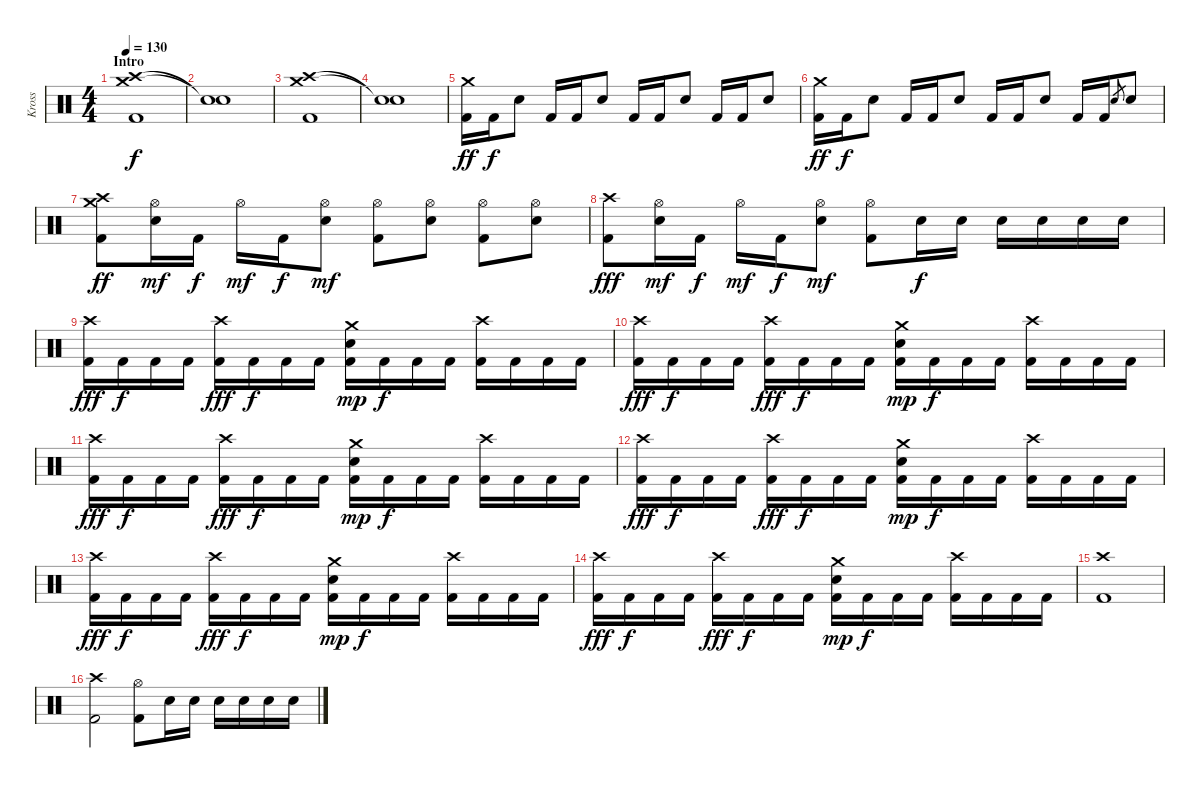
\track ("Kross" "Kross") {instrument percussion}
\staff {score}
\articulation defaults
\ts (4 4)
\section ("" "Intro")
\tempo 130
\clef neutral
\ks c
("Crash medium (hit)" "Crash high (hit)" "Kick (hit) 2").1{dy f} |
("Snare (hit)"{t} "Snare (hit)"{t}).1 |
("Crash medium (hit)" "Crash high (hit)" "Kick (hit) 2").1 |
("Snare (hit)"{t} "Snare (hit)"{t}).1 |
("Crash medium (hit)" "Kick (hit) 2").16{dy ff} "Kick (hit) 2".16{dy f} "Snare (hit) 2".8 "Kick (hit) 2".16 "Kick (hit) 2".16 "Snare (hit) 2".8 "Kick (hit) 2".16 "Kick (hit) 2".16 "Snare (hit) 2".8 "Kick (hit) 2".16 "Kick (hit) 2".16 "Snare (hit) 2".8 |
("Crash medium (hit)" "Kick (hit) 2").16{dy ff} "Kick (hit) 2".16{dy f} "Snare (hit) 2".8 "Kick (hit) 2".16 "Kick (hit) 2".16 "Snare (hit) 2".8 "Kick (hit) 2".16 "Kick (hit) 2".16 "Snare (hit) 2".8 "Kick (hit) 2".16 "Kick (hit) 2".16 "Snare (hit) 2".8{gr} "Snare (hit) 2".8 |
("Crash medium (hit)" "Crash high (hit)" "Kick (hit) 2").8{dy ff} ("Hi-Hat (open)" "Snare (hit) 2").16{dy mf} "Kick (hit) 2".16{dy f} "Hi-Hat (open)".16{dy mf} "Kick (hit) 2".16{dy f} ("Hi-Hat (open)" "Snare (hit) 2").8{dy mf} ("Hi-Hat (open)" "Kick (hit) 2").8 ("Hi-Hat (open)" "Snare (hit) 2").8 ("Hi-Hat (open)" "Kick (hit) 2").8 ("Hi-Hat (open)" "Snare (hit) 2").8 |
("Crash high (hit)" "Kick (hit) 2").8{dy fff} ("Hi-Hat (open)" "Snare (hit) 2").16{dy mf} "Kick (hit) 2".16{dy f} "Hi-Hat (open)".16{dy mf} "Kick (hit) 2".16{dy f} ("Hi-Hat (open)" "Snare (hit) 2").8{dy mf} ("Hi-Hat (open)" "Kick (hit) 2").8 "Snare (hit) 2".16{dy f} "Snare (hit) 2".16 "Snare (hit) 2".16 "Snare (hit) 2".16 "Snare (hit) 2".16 "Snare (hit) 2".16 |
("Crash high (hit)" "Kick (hit) 2").16{dy fff} "Kick (hit) 2".16{dy f} "Kick (hit) 2".16 "Kick (hit) 2".16 ("Crash high (hit)" "Kick (hit) 2").16{dy fff} "Kick (hit) 2".16{dy f} "Kick (hit) 2".16 "Kick (hit) 2".16 ("Crash medium (hit)" "Snare (hit) 2" "Kick (hit) 2").16{dy mp} "Kick (hit) 2".16{dy f} "Kick (hit) 2".16 "Kick (hit) 2".16 ("Crash high (hit)" "Kick (hit) 2").16 "Kick (hit) 2".16 "Kick (hit) 2".16 "Kick (hit) 2".16 |
("Crash high (hit)" "Kick (hit) 2").16{dy fff} "Kick (hit) 2".16{dy f} "Kick (hit) 2".16 "Kick (hit) 2".16 ("Crash high (hit)" "Kick (hit) 2").16{dy fff} "Kick (hit) 2".16{dy f} "Kick (hit) 2".16 "Kick (hit) 2".16 ("Crash medium (hit)" "Snare (hit) 2" "Kick (hit) 2").16{dy mp} "Kick (hit) 2".16{dy f} "Kick (hit) 2".16 "Kick (hit) 2".16 ("Crash high (hit)" "Kick (hit) 2").16 "Kick (hit) 2".16 "Kick (hit) 2".16 "Kick (hit) 2".16 |
("Crash high (hit)" "Kick (hit) 2").16{dy fff} "Kick (hit) 2".16{dy f} "Kick (hit) 2".16 "Kick (hit) 2".16 ("Crash high (hit)" "Kick (hit) 2").16{dy fff} "Kick (hit) 2".16{dy f} "Kick (hit) 2".16 "Kick (hit) 2".16 ("Crash medium (hit)" "Snare (hit) 2" "Kick (hit) 2").16{dy mp} "Kick (hit) 2".16{dy f} "Kick (hit) 2".16 "Kick (hit) 2".16 ("Crash high (hit)" "Kick (hit) 2").16 "Kick (hit) 2".16 "Kick (hit) 2".16 "Kick (hit) 2".16 |
("Crash high (hit)" "Kick (hit) 2").16{dy fff} "Kick (hit) 2".16{dy f} "Kick (hit) 2".16 "Kick (hit) 2".16 ("Crash high (hit)" "Kick (hit) 2").16{dy fff} "Kick (hit) 2".16{dy f} "Kick (hit) 2".16 "Kick (hit) 2".16 ("Crash medium (hit)" "Snare (hit) 2" "Kick (hit) 2").16{dy mp} "Kick (hit) 2".16{dy f} "Kick (hit) 2".16 "Kick (hit) 2".16 ("Crash high (hit)" "Kick (hit) 2").16 "Kick (hit) 2".16 "Kick (hit) 2".16 "Kick (hit) 2".16 |
("Crash high (hit)" "Kick (hit) 2").16{dy fff} "Kick (hit) 2".16{dy f} "Kick (hit) 2".16 "Kick (hit) 2".16 ("Crash high (hit)" "Kick (hit) 2").16{dy fff} "Kick (hit) 2".16{dy f} "Kick (hit) 2".16 "Kick (hit) 2".16 ("Crash medium (hit)" "Snare (hit) 2" "Kick (hit) 2").16{dy mp} "Kick (hit) 2".16{dy f} "Kick (hit) 2".16 "Kick (hit) 2".16 ("Crash high (hit)" "Kick (hit) 2").16 "Kick (hit) 2".16 "Kick (hit) 2".16 "Kick (hit) 2".16 |
("Crash high (hit)" "Kick (hit) 2").16{dy fff} "Kick (hit) 2".16{dy f} "Kick (hit) 2".16 "Kick (hit) 2".16 ("Crash high (hit)" "Kick (hit) 2").16{dy fff} "Kick (hit) 2".16{dy f} "Kick (hit) 2".16 "Kick (hit) 2".16 ("Crash medium (hit)" "Snare (hit) 2" "Kick (hit) 2").16{dy mp} "Kick (hit) 2".16{dy f} "Kick (hit) 2".16 "Kick (hit) 2".16 ("Crash high (hit)" "Kick (hit) 2").16 "Kick (hit) 2".16 "Kick (hit) 2".16 "Kick (hit) 2".16 |
("Crash high (hit)" "Kick (hit) 2").1 |
("Crash high (hit)" "Kick (hit) 2").2 ("Hi-Hat (open)" "Kick (hit) 2").8 "Snare (hit) 2".16 "Snare (hit) 2".16 "Snare (hit) 2".16 "Snare (hit) 2".16 "Snare (hit) 2".16 "Snare (hit) 2".16
